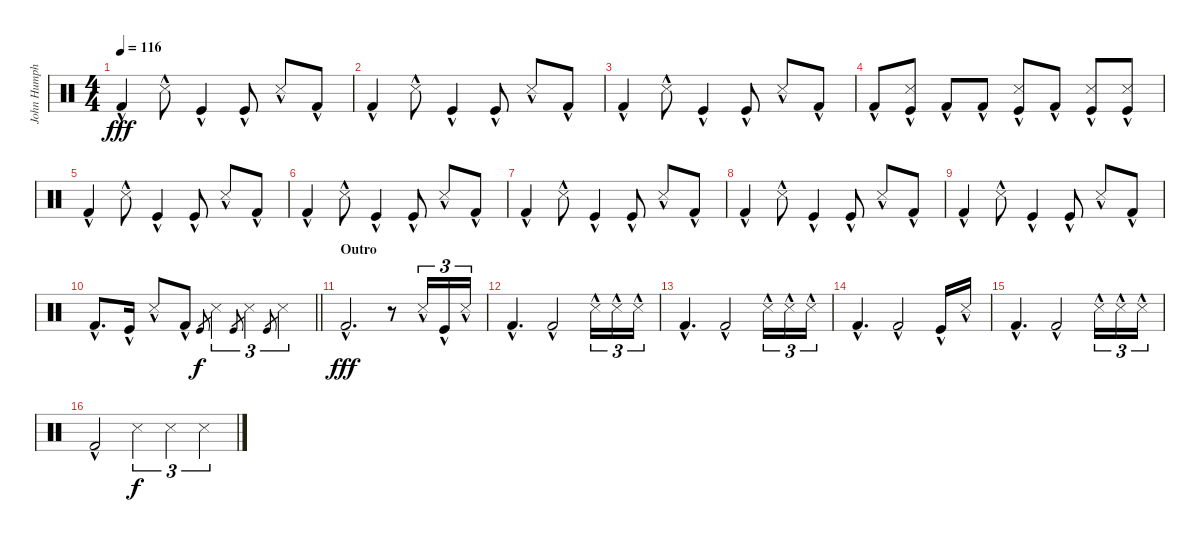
\track ("John Humphrey (Percussions)" "John Humph") {instrument percussion}
\staff {score}
\articulation defaults
\ts (4 4)
\tempo 116
\clef neutral
\ks c "Kick (hit) 2"{hac}.4{dy fff} "Snare (side stick) 3"{hac}.8 "Kick (hit)"{hac}.4 "Kick (hit)"{hac}.8 "Snare (side stick) 3"{hac}.8 "Kick (hit) 2"{hac}.8
|
"Kick (hit) 2"{hac}.4 "Snare (side stick) 3"{hac}.8 "Kick (hit)"{hac}.4 "Kick (hit)"{hac}.8 "Snare (side stick) 3"{hac}.8 "Kick (hit) 2"{hac}.8 |
"Kick (hit) 2"{hac}.4 "Snare (side stick) 3"{hac}.8 "Kick (hit)"{hac}.4 "Kick (hit)"{hac}.8 "Snare (side stick) 3"{hac}.8 "Kick (hit) 2"{hac}.8 |
"Kick (hit) 2"{hac}.8 ("Snare (side stick) 3"{hac} "Kick (hit)"{hac}).8 "Kick (hit) 2"{hac}.8 "Kick (hit) 2"{hac}.8 ("Snare (side stick) 3"{hac} "Kick (hit)"{hac}).8 "Kick (hit) 2"{hac}.8 ("Snare (side stick) 3"{hac} "Kick (hit)"{hac}).8 ("Snare (side stick) 3"{hac} "Kick (hit)"{hac}).8 |
"Kick (hit) 2"{hac}.4 "Snare (side stick) 3"{hac}.8 "Kick (hit)"{hac}.4 "Kick (hit)"{hac}.8 "Snare (side stick) 3"{hac}.8 "Kick (hit) 2"{hac}.8 |
"Kick (hit) 2"{hac}.4 "Snare (side stick) 3"{hac}.8 "Kick (hit)"{hac}.4 "Kick (hit)"{hac}.8 "Snare (side stick) 3"{hac}.8 "Kick (hit) 2"{hac}.8 |
"Kick (hit) 2"{hac}.4 "Snare (side stick) 3"{hac}.8 "Kick (hit)"{hac}.4 "Kick (hit)"{hac}.8 "Snare (side stick) 3"{hac}.8 "Kick (hit) 2"{hac}.8 |
"Kick (hit) 2"{hac}.4 "Snare (side stick) 3"{hac}.8 "Kick (hit)"{hac}.4 "Kick (hit)"{hac}.8 "Snare (side stick) 3"{hac}.8 "Kick (hit) 2"{hac}.8 |
"Kick (hit) 2"{hac}.4 "Snare (side stick) 3"{hac}.8 "Kick (hit)"{hac}.4 "Kick (hit)"{hac}.8 "Snare (side stick) 3"{hac}.8 "Kick (hit) 2"{hac}.8 |
\barLineRight lightlight "Kick (hit) 2"{hac}.8{d} "Kick (hit)"{hac}.16 "Snare (side stick) 3"{hac}.8 "Kick (hit) 2"{hac}.8 "Kick (hit)".8{gr dy f} "Snare (side stick) 3".4{tu (3 2)} "Kick (hit)".8{gr} "Snare (side stick) 3".4{tu (3 2)} "Kick (hit)".8{gr} "Snare (side stick) 3".4{tu (3 2)}
|
\section ("" "Outro")
"Kick (hit) 2"{hac}.2{d dy fff} r.8 "Snare (side stick) 3"{hac}.16{tu (3 2)} "Kick (hit)"{hac}.16{tu (3 2)} "Snare (side stick) 3"{hac}.16{tu (3 2)} |
"Kick (hit) 2"{hac}.4{d} "Kick (hit) 2"{hac}.2 "Snare (side stick) 3"{hac}.16{tu (3 2)} "Snare (side stick) 3"{hac}.16{tu (3 2)} "Snare (side stick) 3"{hac}.16{tu (3 2)} |
"Kick (hit) 2"{hac}.4{d} "Kick (hit) 2"{hac}.2 "Snare (side stick) 3"{hac}.16{tu (3 2)} "Snare (side stick) 3"{hac}.16{tu (3 2)} "Snare (side stick) 3"{hac}.16{tu (3 2)} |
"Kick (hit) 2"{hac}.4{d} "Kick (hit) 2"{hac}.2 "Kick (hit)"{hac}.16 "Snare (side stick) 3"{hac}.16 |
"Kick (hit) 2"{hac}.4{d} "Kick (hit) 2"{hac}.2 "Snare (side stick) 3"{hac}.16{tu (3 2)} "Snare (side stick) 3"{hac}.16{tu (3 2)} "Snare (side stick) 3"{hac}.16{tu (3 2)} |
"Kick (hit) 2"{hac}.2 "Snare (side stick) 3".4{tu (3 2) dy f} "Snare (side stick) 3".4{tu (3 2)} "Snare (side stick) 3".4{tu (3 2)}
